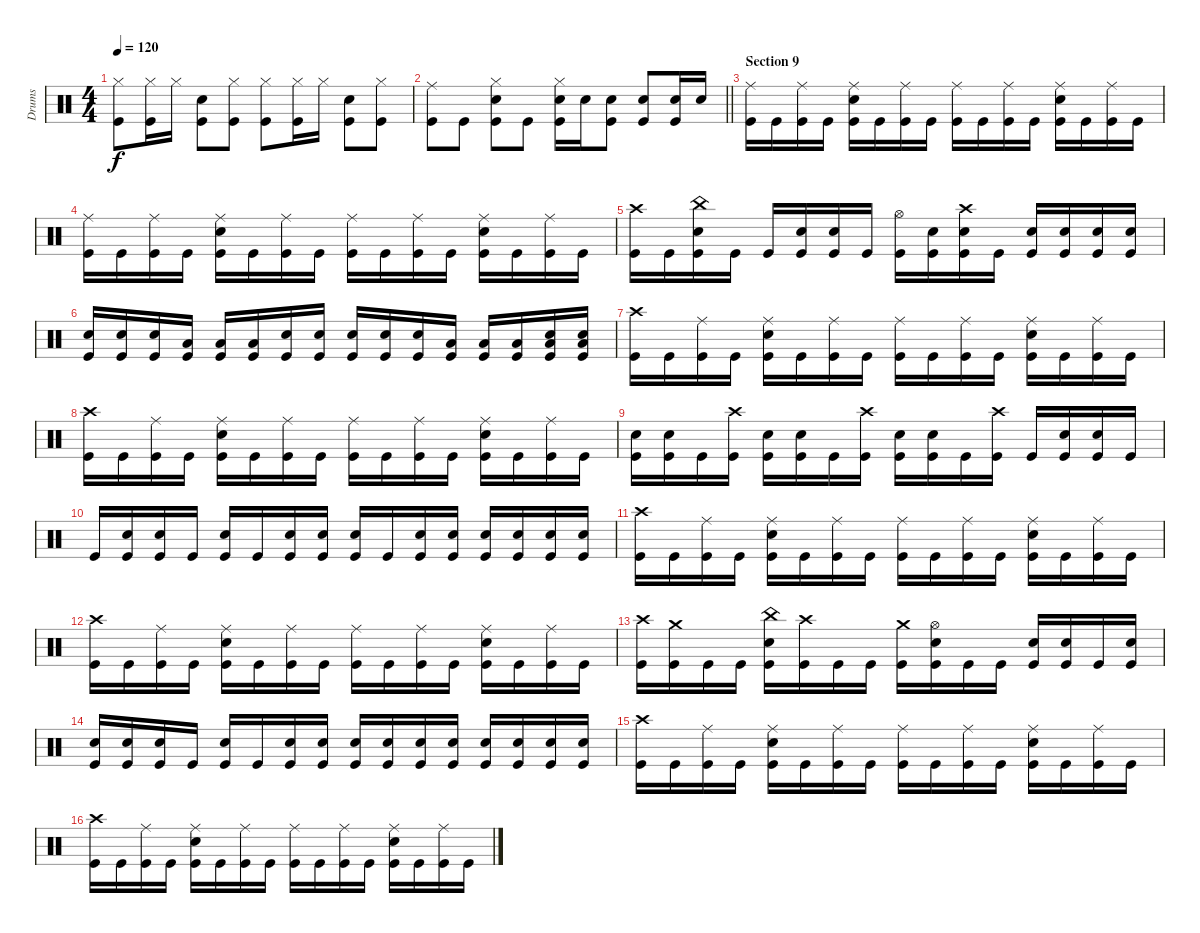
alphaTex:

\track ("Drums" "Drums") {instrument percussion}
\staff {score}
\articulation defaults
\ts (4 4)
\tempo 120
\clef neutral
\ks c
("Hi-Hat (closed)" "Kick (hit)").8{dy f} ("Hi-Hat (closed)" "Kick (hit)").16 "Hi-Hat (closed)".16 ("Snare (hit) 2" "Kick (hit)").8 ("Hi-Hat (closed)" "Kick (hit)").8 ("Hi-Hat (closed)" "Kick (hit)").8 ("Hi-Hat (closed)" "Kick (hit)").16 "Hi-Hat (closed)".16 ("Snare (hit) 2" "Kick (hit)").8 ("Hi-Hat (closed)" "Kick (hit)").8 |
\barLineRight lightlight
("Ride (middle)" "Kick (hit)").8 "Kick (hit)".8 ("Hi-Hat (closed)" "Snare (hit) 2" "Kick (hit)").8 "Kick (hit)".8 ("Hi-Hat (closed)" "Snare (hit) 2" "Kick (hit)").16 "Snare (hit) 2".16 ("Snare (hit) 2" "Kick (hit)").8 ("Snare (hit) 2" "Kick (hit)").8 ("Snare (hit) 2" "Kick (hit)").16 "Snare (hit) 2".16 |
\section ("" "Section 9")
("Ride (middle)" "Kick (hit)").16 "Kick (hit)".16 ("Ride (middle)" "Kick (hit)").16 "Kick (hit)".16 ("Ride (middle)" "Snare (hit) 2" "Kick (hit)").16 "Kick (hit)".16 ("Ride (middle)" "Kick (hit)").16 "Kick (hit)".16 ("Ride (middle)" "Kick (hit)").16 "Kick (hit)".16 ("Ride (middle)" "Kick (hit)").16 "Kick (hit)".16 ("Ride (middle)" "Snare (hit) 2" "Kick (hit)").16 "Kick (hit)".16 ("Ride (middle)" "Kick (hit)").16 "Kick (hit)".16 |
("Ride (middle)" "Kick (hit)").16 "Kick (hit)".16 ("Ride (middle)" "Kick (hit)").16 "Kick (hit)".16 ("Ride (middle)" "Snare (hit) 2" "Kick (hit)").16 "Kick (hit)".16 ("Ride (middle)" "Kick (hit)").16 "Kick (hit)".16 ("Ride (middle)" "Kick (hit)").16 "Kick (hit)".16 ("Ride (middle)" "Kick (hit)").16 "Kick (hit)".16 ("Ride (middle)" "Snare (hit) 2" "Kick (hit)").16 "Kick (hit)".16 ("Ride (middle)" "Kick (hit)").16 "Kick (hit)".16 |
("Crash high (hit)" "Kick (hit)").16 "Kick (hit)".16 ("China (hit)" "Snare (hit) 2" "Kick (hit)").16 "Kick (hit)".16 "Kick (hit)".16 ("Snare (hit) 2" "Kick (hit)").16 ("Snare (hit) 2" "Kick (hit)").16 "Kick (hit)".16 ("Hi-Hat (open)" "Kick (hit)").16 ("Snare (hit) 2" "Kick (hit)").16 ("Crash high (hit)" "Snare (hit) 2" "Kick (hit)").16 "Kick (hit)".16 ("Snare (hit) 2" "Kick (hit)").16 ("Snare (hit) 2" "Kick (hit)").16 ("Snare (hit) 2" "Kick (hit)").16 ("Snare (hit) 2" "Kick (hit)").16 |
("Snare (hit) 2" "Kick (hit)").16 ("Snare (hit) 2" "Kick (hit)").16 ("Snare (hit) 2" "Kick (hit)").16 ("Low Floor Tom (hit)" "Kick (hit)").16 ("Low Floor Tom (hit)" "Kick (hit)").16 ("Low Floor Tom (hit)" "Kick (hit)").16 ("Snare (hit) 2" "Kick (hit)").16 ("Snare (hit) 2" "Kick (hit)").16 ("Snare (hit) 2" "Kick (hit)").16 ("Snare (hit) 2" "Kick (hit)").16 ("Snare (hit) 2" "Kick (hit)").16 ("Low Floor Tom (hit)" "Kick (hit)").16 ("Low Floor Tom (hit)" "Kick (hit)").16 ("Low Floor Tom (hit)" "Kick (hit)").16 ("Snare (hit) 2" "Low Floor Tom (hit)" "Kick (hit)").16 ("Snare (hit) 2" "Low Floor Tom (hit)" "Kick (hit)").16 |
("Crash high (hit)" "Kick (hit)").16 "Kick (hit)".16 ("Ride (middle)" "Kick (hit)").16 "Kick (hit)".16 ("Ride (middle)" "Snare (hit) 2" "Kick (hit)").16 "Kick (hit)".16 ("Ride (middle)" "Kick (hit)").16 "Kick (hit)".16 ("Ride (middle)" "Kick (hit)").16 "Kick (hit)".16 ("Ride (middle)" "Kick (hit)").16 "Kick (hit)".16 ("Ride (middle)" "Snare (hit) 2" "Kick (hit)").16 "Kick (hit)".16 ("Ride (middle)" "Kick (hit)").16 "Kick (hit)".16 |
("Crash high (hit)" "Kick (hit)").16 "Kick (hit)".16 ("Ride (middle)" "Kick (hit)").16 "Kick (hit)".16 ("Ride (middle)" "Snare (hit) 2" "Kick (hit)").16 "Kick (hit)".16 ("Ride (middle)" "Kick (hit)").16 "Kick (hit)".16 ("Ride (middle)" "Kick (hit)").16 "Kick (hit)".16 ("Ride (middle)" "Kick (hit)").16 "Kick (hit)".16 ("Ride (middle)" "Snare (hit) 2" "Kick (hit)").16 "Kick (hit)".16 ("Ride (middle)" "Kick (hit)").16 "Kick (hit)".16 |
("Snare (hit) 2" "Kick (hit)").16 ("Snare (hit) 2" "Kick (hit)").16 "Kick (hit)".16 ("Crash high (hit)" "Kick (hit)").16 ("Snare (hit) 2" "Kick (hit)").16 ("Snare (hit) 2" "Kick (hit)").16 "Kick (hit)".16 ("Crash high (hit)" "Kick (hit)").16 ("Snare (hit) 2" "Kick (hit)").16 ("Snare (hit) 2" "Kick (hit)").16 "Kick (hit)".16 ("Crash high (hit)" "Kick (hit)").16 "Kick (hit)".16 ("Snare (hit) 2" "Kick (hit)").16 ("Snare (hit) 2" "Kick (hit)").16 "Kick (hit)".16 |
"Kick (hit)".16 ("Snare (hit) 2" "Kick (hit)").16 ("Snare (hit) 2" "Kick (hit)").16 "Kick (hit)".16 ("Snare (hit) 2" "Kick (hit)").16 "Kick (hit)".16 ("Snare (hit) 2" "Kick (hit)").16 ("Snare (hit) 2" "Kick (hit)").16 ("Snare (hit) 2" "Kick (hit)").16 "Kick (hit)".16 ("Snare (hit) 2" "Kick (hit)").16 ("Snare (hit) 2" "Kick (hit)").16 ("Snare (hit) 2" "Kick (hit)").16 ("Snare (hit) 2" "Kick (hit)").16 ("Snare (hit) 2" "Kick (hit)").16 ("Snare (hit) 2" "Kick (hit)").16 |
("Crash high (hit)" "Kick (hit)").16 "Kick (hit)".16 ("Ride (middle)" "Kick (hit)").16 "Kick (hit)".16 ("Ride (middle)" "Snare (hit) 2" "Kick (hit)").16 "Kick (hit)".16 ("Ride (middle)" "Kick (hit)").16 "Kick (hit)".16 ("Ride (middle)" "Kick (hit)").16 "Kick (hit)".16 ("Ride (middle)" "Kick (hit)").16 "Kick (hit)".16 ("Ride (middle)" "Snare (hit) 2" "Kick (hit)").16 "Kick (hit)".16 ("Ride (middle)" "Kick (hit)").16 "Kick (hit)".16 |
("Crash high (hit)" "Kick (hit)").16 "Kick (hit)".16 ("Ride (middle)" "Kick (hit)").16 "Kick (hit)".16 ("Ride (middle)" "Snare (hit) 2" "Kick (hit)").16 "Kick (hit)".16 ("Ride (middle)" "Kick (hit)").16 "Kick (hit)".16 ("Ride (middle)" "Kick (hit)").16 "Kick (hit)".16 ("Ride (middle)" "Kick (hit)").16 "Kick (hit)".16 ("Ride (middle)" "Snare (hit) 2" "Kick (hit)").16 "Kick (hit)".16 ("Ride (middle)" "Kick (hit)").16 "Kick (hit)".16 |
("Crash high (hit)" "Kick (hit)").16 ("Crash medium (hit)" "Kick (hit)").16 "Kick (hit)".16 "Kick (hit)".16 ("China (hit)" "Snare (hit) 2" "Kick (hit)").16 ("Crash high (hit)" "Kick (hit)").16 "Kick (hit)".16 "Kick (hit)".16 ("Crash medium (hit)" "Kick (hit)").16 ("Hi-Hat (open)" "Snare (hit) 2" "Kick (hit)").16 "Kick (hit)".16 "Kick (hit)".16 ("Snare (hit) 2" "Kick (hit)").16 ("Snare (hit) 2" "Kick (hit)").16 "Kick (hit)".16 ("Snare (hit) 2" "Kick (hit)").16 |
("Snare (hit) 2" "Kick (hit)").16 ("Snare (hit) 2" "Kick (hit)").16 ("Snare (hit) 2" "Kick (hit)").16 "Kick (hit)".16 ("Snare (hit) 2" "Kick (hit)").16 "Kick (hit)".16 ("Snare (hit) 2" "Kick (hit)").16 ("Snare (hit) 2" "Kick (hit)").16 ("Snare (hit) 2" "Kick (hit)").16 ("Snare (hit) 2" "Kick (hit)").16 ("Snare (hit) 2" "Kick (hit)").16 ("Snare (hit) 2" "Kick (hit)").16 ("Snare (hit) 2" "Kick (hit)").16 ("Snare (hit) 2" "Kick (hit)").16 ("Snare (hit) 2" "Kick (hit)").16 ("Snare (hit) 2" "Kick (hit)").16 |
("Crash high (hit)" "Kick (hit)").16 "Kick (hit)".16 ("Ride (middle)" "Kick (hit)").16 "Kick (hit)".16 ("Ride (middle)" "Snare (hit) 2" "Kick (hit)").16 "Kick (hit)".16 ("Ride (middle)" "Kick (hit)").16 "Kick (hit)".16 ("Ride (middle)" "Kick (hit)").16 "Kick (hit)".16 ("Ride (middle)" "Kick (hit)").16 "Kick (hit)".16 ("Ride (middle)" "Snare (hit) 2" "Kick (hit)").16 "Kick (hit)".16 ("Ride (middle)" "Kick (hit)").16 "Kick (hit)".16 |
("Crash high (hit)" "Kick (hit)").16 "Kick (hit)".16 ("Ride (middle)" "Kick (hit)").16 "Kick (hit)".16 ("Ride (middle)" "Snare (hit) 2" "Kick (hit)").16 "Kick (hit)".16 ("Ride (middle)" "Kick (hit)").16 "Kick (hit)".16 ("Ride (middle)" "Kick (hit)").16 "Kick (hit)".16 ("Ride (middle)" "Kick (hit)").16 "Kick (hit)".16 ("Ride (middle)" "Snare (hit) 2" "Kick (hit)").16 "Kick (hit)".16 ("Ride (middle)" "Kick (hit)").16 "Kick (hit)".16
